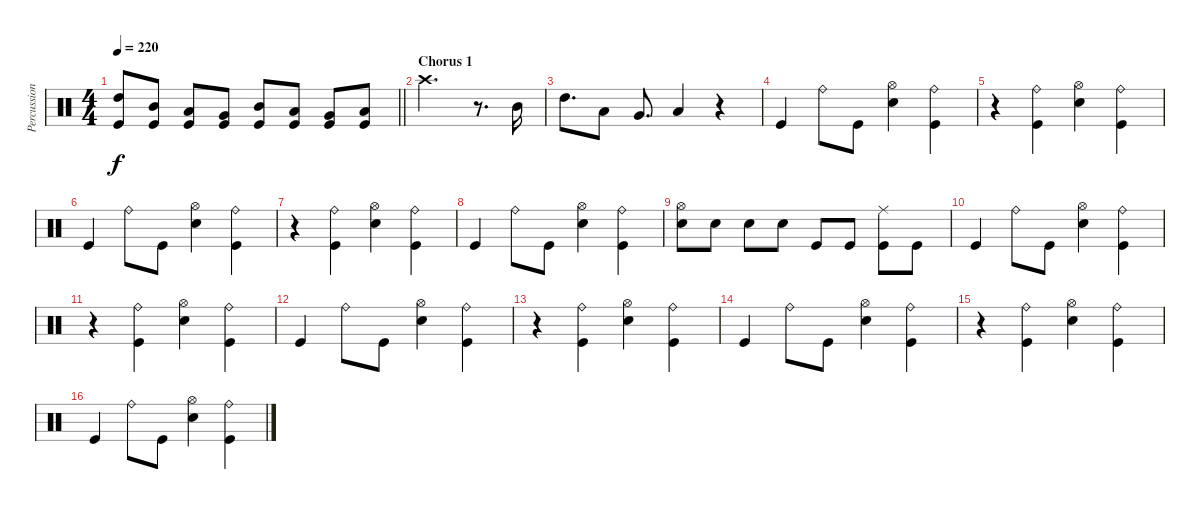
\track ("Percussion" "Percussion") {instrument percussion}
\staff {score}
\articulation defaults
\ts (4 4)
\tempo 220
\clef neutral
\barLineRight lightlight
\ks c
("Kick (hit)" "High Tom (hit)").8{dy f} ("Kick (hit)" "Mid Tom (hit)").8 ("Kick (hit)" "Low Tom (hit)").8 ("Kick (hit)" "Very Low Tom (hit)").8 ("Kick (hit)" "Mid Tom (hit)").8 ("Kick (hit)" "Low Tom (hit)").8 ("Kick (hit)" "Very Low Tom (hit)").8 ("Kick (hit)" "Low Floor Tom (hit)").8 |
\section ("" "Chorus 1")
"Crash high (hit)".2{d} r.8{d} "Mid Tom (hit)".16 |
"High Tom (hit)".8{d} "Low Tom (hit)".8 "Very Low Tom (hit)".8{d} "Low Floor Tom (hit)".4 r.4 |
"Kick (hit)".4 "Ride (bell)".8 "Kick (hit)".8 ("Snare (hit) 2" "Hi-Hat (open)").4 ("Kick (hit)" "Ride (bell)").4 |
r.4 ("Kick (hit)" "Ride (bell)").4 ("Snare (hit) 2" "Hi-Hat (open)").4 ("Kick (hit)" "Ride (bell)").4 |
"Kick (hit)".4 "Ride (bell)".8 "Kick (hit)".8 ("Snare (hit) 2" "Hi-Hat (open)").4 ("Kick (hit)" "Ride (bell)").4 |
r.4 ("Kick (hit)" "Ride (bell)").4 ("Snare (hit) 2" "Hi-Hat (open)").4 ("Kick (hit)" "Ride (bell)").4 |
"Kick (hit)".4 "Ride (bell)".8 "Kick (hit)".8 ("Snare (hit) 2" "Hi-Hat (open)").4 ("Kick (hit)" "Ride (bell)").4 |
("Snare (hit) 2" "Hi-Hat (open)").8 "Snare (hit) 2".8 "Snare (hit) 2".8 "Snare (hit) 2".8 "Kick (hit)".8 "Kick (hit)".8 ("Kick (hit)" "Ride (middle)").8 "Kick (hit)".8 |
"Kick (hit)".4 "Ride (bell)".8 "Kick (hit)".8 ("Snare (hit) 2" "Hi-Hat (open)").4 ("Kick (hit)" "Ride (bell)").4 |
r.4 ("Kick (hit)" "Ride (bell)").4 ("Snare (hit) 2" "Hi-Hat (open)").4 ("Kick (hit)" "Ride (bell)").4 |
"Kick (hit)".4 "Ride (bell)".8 "Kick (hit)".8 ("Snare (hit) 2" "Hi-Hat (open)").4 ("Kick (hit)" "Ride (bell)").4 |
r.4 ("Kick (hit)" "Ride (bell)").4 ("Snare (hit) 2" "Hi-Hat (open)").4 ("Kick (hit)" "Ride (bell)").4 |
"Kick (hit)".4 "Ride (bell)".8 "Kick (hit)".8 ("Snare (hit) 2" "Hi-Hat (open)").4 ("Kick (hit)" "Ride (bell)").4 |
r.4 ("Kick (hit)" "Ride (bell)").4 ("Snare (hit) 2" "Hi-Hat (open)").4 ("Kick (hit)" "Ride (bell)").4 |
"Kick (hit)".4 "Ride (bell)".8 "Kick (hit)".8 ("Snare (hit) 2" "Hi-Hat (open)").4 ("Kick (hit)" "Ride (bell)").4
